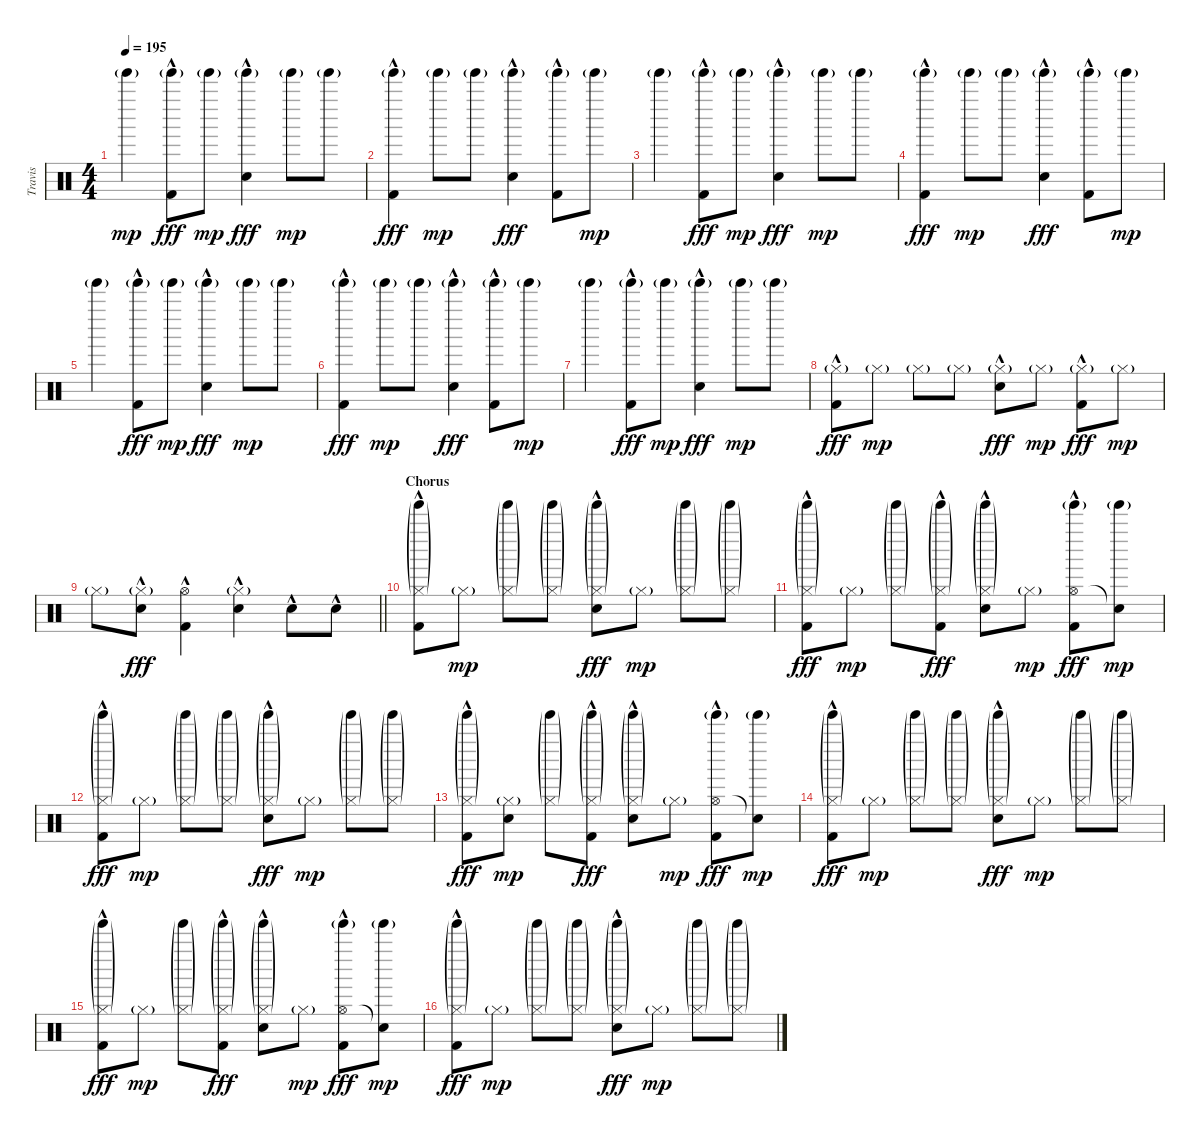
\track ("Travis" "Travis") {instrument percussion}
\staff {score}
\articulation defaults
\ts (4 4)
\tempo 195
\clef neutral
\ks c "Tinkle Bell (hit)"{g}.4{dy mp}
("Tinkle Bell (hit)"{g} "Kick (hit) 2"{hac}).8{dy fff} "Tinkle Bell (hit)"{g}.8{dy mp} ("Tinkle Bell (hit)"{g} "Electric Snare (hit)"{hac}).4{dy fff} "Tinkle Bell (hit)"{g}.8{dy mp} "Tinkle Bell (hit)"{g}.8 |
("Tinkle Bell (hit)"{g} "Kick (hit) 2"{hac}).4{dy fff} "Tinkle Bell (hit)"{g}.8{dy mp} "Tinkle Bell (hit)"{g}.8 ("Tinkle Bell (hit)"{g} "Electric Snare (hit)"{hac}).4{dy fff} ("Tinkle Bell (hit)"{g} "Kick (hit) 2"{hac}).8 "Tinkle Bell (hit)"{g}.8{dy mp} |
"Tinkle Bell (hit)"{g}.4 ("Tinkle Bell (hit)"{g} "Kick (hit) 2"{hac}).8{dy fff} "Tinkle Bell (hit)"{g}.8{dy mp} ("Tinkle Bell (hit)"{g} "Electric Snare (hit)"{hac}).4{dy fff} "Tinkle Bell (hit)"{g}.8{dy mp} "Tinkle Bell (hit)"{g}.8 |
("Tinkle Bell (hit)"{g} "Kick (hit) 2"{hac}).4{dy fff} "Tinkle Bell (hit)"{g}.8{dy mp} "Tinkle Bell (hit)"{g}.8 ("Tinkle Bell (hit)"{g} "Electric Snare (hit)"{hac}).4{dy fff} ("Tinkle Bell (hit)"{g} "Kick (hit) 2"{hac}).8 "Tinkle Bell (hit)"{g}.8{dy mp} |
"Tinkle Bell (hit)"{g}.4 ("Tinkle Bell (hit)"{g} "Kick (hit) 2"{hac}).8{dy fff} "Tinkle Bell (hit)"{g}.8{dy mp} ("Tinkle Bell (hit)"{g} "Electric Snare (hit)"{hac}).4{dy fff} "Tinkle Bell (hit)"{g}.8{dy mp} "Tinkle Bell (hit)"{g}.8 |
("Tinkle Bell (hit)"{g} "Kick (hit) 2"{hac}).4{dy fff} "Tinkle Bell (hit)"{g}.8{dy mp} "Tinkle Bell (hit)"{g}.8 ("Tinkle Bell (hit)"{g} "Electric Snare (hit)"{hac}).4{dy fff} ("Tinkle Bell (hit)"{g} "Kick (hit) 2"{hac}).8 "Tinkle Bell (hit)"{g}.8{dy mp} |
"Tinkle Bell (hit)"{g}.4 ("Tinkle Bell (hit)"{g} "Kick (hit) 2"{hac}).8{dy fff} "Tinkle Bell (hit)"{g}.8{dy mp} ("Tinkle Bell (hit)"{g} "Electric Snare (hit)"{hac}).4{dy fff} "Tinkle Bell (hit)"{g}.8{dy mp} "Tinkle Bell (hit)"{g}.8 |
("Hi-Hat (closed)"{g} "Kick (hit) 2"{hac}).8{dy fff} "Hi-Hat (closed)"{g}.8{dy mp} "Hi-Hat (closed)"{g}.8 "Hi-Hat (closed)"{g}.8 ("Hi-Hat (closed)"{g} "Electric Snare (hit)"{hac}).8{dy fff} "Hi-Hat (closed)"{g}.8{dy mp} ("Hi-Hat (closed)"{g} "Kick (hit) 2"{hac}).8{dy fff} "Hi-Hat (closed)"{g}.8{dy mp} |
\barLineRight lightlight "Hi-Hat (closed)"{g}.8
("Hi-Hat (closed)"{g} "Electric Snare (hit)"{hac}).8{dy fff} ("Hi-Hat (open)" "Kick (hit) 2"{hac}).4 ("Hi-Hat (closed)"{g} "Electric Snare (hit)"{hac}).4 "Electric Snare (hit)"{hac}.8 "Electric Snare (hit)"{hac}.8 |
\section ("" "Chorus")
("Tinkle Bell (hit)"{g} "Hi-Hat (closed)"{g} "Kick (hit) 2"{hac}).8 "Hi-Hat (closed)"{g}.8{dy mp} ("Tinkle Bell (hit)"{g} "Hi-Hat (closed)"{g}).8 ("Tinkle Bell (hit)"{g} "Hi-Hat (closed)"{g}).8 ("Tinkle Bell (hit)"{g} "Hi-Hat (closed)"{g} "Electric Snare (hit)"{hac}).8{dy fff} "Hi-Hat (closed)"{g}.8{dy mp} ("Tinkle Bell (hit)"{g} "Hi-Hat (closed)"{g}).8 ("Tinkle Bell (hit)"{g} "Hi-Hat (closed)"{g}).8 |
("Tinkle Bell (hit)"{g} "Hi-Hat (closed)"{g} "Kick (hit) 2"{hac}).8{dy fff} "Hi-Hat (closed)"{g}.8{dy mp} ("Tinkle Bell (hit)"{g} "Hi-Hat (closed)"{g}).8 ("Tinkle Bell (hit)"{g} "Hi-Hat (closed)"{g} "Kick (hit) 2"{hac}).8{dy fff} ("Tinkle Bell (hit)"{g} "Hi-Hat (closed)"{g} "Electric Snare (hit)"{hac}).8 "Hi-Hat (closed)"{g}.8{dy mp} ("Tinkle Bell (hit)"{g} "Hi-Hat (open)" "Kick (hit) 2"{hac}).8{dy fff} ("Tinkle Bell (hit)"{g} "Snare (hit)"{t}).8{dy mp} |
("Tinkle Bell (hit)"{g} "Hi-Hat (closed)"{g} "Kick (hit) 2"{hac}).8{dy fff} "Hi-Hat (closed)"{g}.8{dy mp} ("Tinkle Bell (hit)"{g} "Hi-Hat (closed)"{g}).8 ("Tinkle Bell (hit)"{g} "Hi-Hat (closed)"{g}).8 ("Tinkle Bell (hit)"{g} "Hi-Hat (closed)"{g} "Electric Snare (hit)"{hac}).8{dy fff} "Hi-Hat (closed)"{g}.8{dy mp} ("Tinkle Bell (hit)"{g} "Hi-Hat (closed)"{g}).8 ("Tinkle Bell (hit)"{g} "Hi-Hat (closed)"{g}).8 |
("Tinkle Bell (hit)"{g} "Hi-Hat (closed)"{g} "Kick (hit) 2"{hac}).8{dy fff} ("Hi-Hat (closed)"{g} "Electric Snare (hit)").8{dy mp} ("Tinkle Bell (hit)"{g} "Hi-Hat (closed)"{g}).8 ("Tinkle Bell (hit)"{g} "Hi-Hat (closed)"{g} "Kick (hit) 2"{hac}).8{dy fff} ("Tinkle Bell (hit)"{g} "Hi-Hat (closed)"{g} "Electric Snare (hit)"{hac}).8 "Hi-Hat (closed)"{g}.8{dy mp} ("Tinkle Bell (hit)"{g} "Hi-Hat (open)" "Kick (hit) 2"{hac}).8{dy fff} ("Tinkle Bell (hit)"{g} "Snare (hit)"{t}).8{dy mp} |
("Tinkle Bell (hit)"{g} "Hi-Hat (closed)"{g} "Kick (hit) 2"{hac}).8{dy fff} "Hi-Hat (closed)"{g}.8{dy mp} ("Tinkle Bell (hit)"{g} "Hi-Hat (closed)"{g}).8 ("Tinkle Bell (hit)"{g} "Hi-Hat (closed)"{g}).8 ("Tinkle Bell (hit)"{g} "Hi-Hat (closed)"{g} "Electric Snare (hit)"{hac}).8{dy fff} "Hi-Hat (closed)"{g}.8{dy mp} ("Tinkle Bell (hit)"{g} "Hi-Hat (closed)"{g}).8 ("Tinkle Bell (hit)"{g} "Hi-Hat (closed)"{g}).8 |
("Tinkle Bell (hit)"{g} "Hi-Hat (closed)"{g} "Kick (hit) 2"{hac}).8{dy fff} "Hi-Hat (closed)"{g}.8{dy mp} ("Tinkle Bell (hit)"{g} "Hi-Hat (closed)"{g}).8 ("Tinkle Bell (hit)"{g} "Hi-Hat (closed)"{g} "Kick (hit) 2"{hac}).8{dy fff} ("Tinkle Bell (hit)"{g} "Hi-Hat (closed)"{g} "Electric Snare (hit)"{hac}).8 "Hi-Hat (closed)"{g}.8{dy mp} ("Tinkle Bell (hit)"{g} "Hi-Hat (open)" "Kick (hit) 2"{hac}).8{dy fff} ("Tinkle Bell (hit)"{g} "Snare (hit)"{t}).8{dy mp} |
("Tinkle Bell (hit)"{g} "Hi-Hat (closed)"{g} "Kick (hit) 2"{hac}).8{dy fff} "Hi-Hat (closed)"{g}.8{dy mp} ("Tinkle Bell (hit)"{g} "Hi-Hat (closed)"{g}).8 ("Tinkle Bell (hit)"{g} "Hi-Hat (closed)"{g}).8 ("Tinkle Bell (hit)"{g} "Hi-Hat (closed)"{g} "Electric Snare (hit)"{hac}).8{dy fff} "Hi-Hat (closed)"{g}.8{dy mp} ("Tinkle Bell (hit)"{g} "Hi-Hat (closed)"{g}).8 ("Tinkle Bell (hit)"{g} "Hi-Hat (closed)"{g}).8
